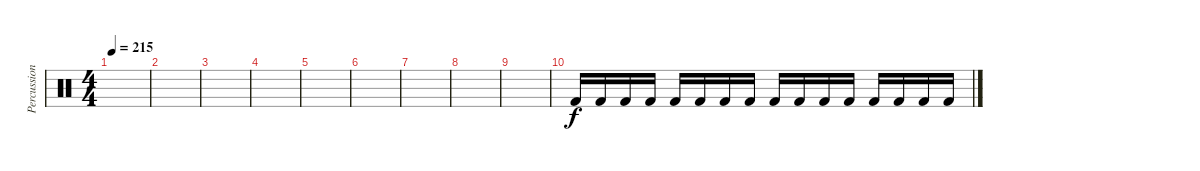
\track ("Percussions" "Percussion") {instrument percussion}
\staff {score}
\articulation defaults
\ts (4 4)
\tempo 215
\clef neutral
\ks c
|
|
|
|
|
|
|
|
|
"Kick (hit) 2".16 "Kick (hit) 2".16 "Kick (hit) 2".16 "Kick (hit) 2".16 "Kick (hit) 2".16 "Kick (hit) 2".16 "Kick (hit) 2".16 "Kick (hit) 2".16 "Kick (hit) 2".16 "Kick (hit) 2".16 "Kick (hit) 2".16 "Kick (hit) 2".16 "Kick (hit) 2".16 "Kick (hit) 2".16 "Kick (hit) 2".16 "Kick (hit) 2".16
